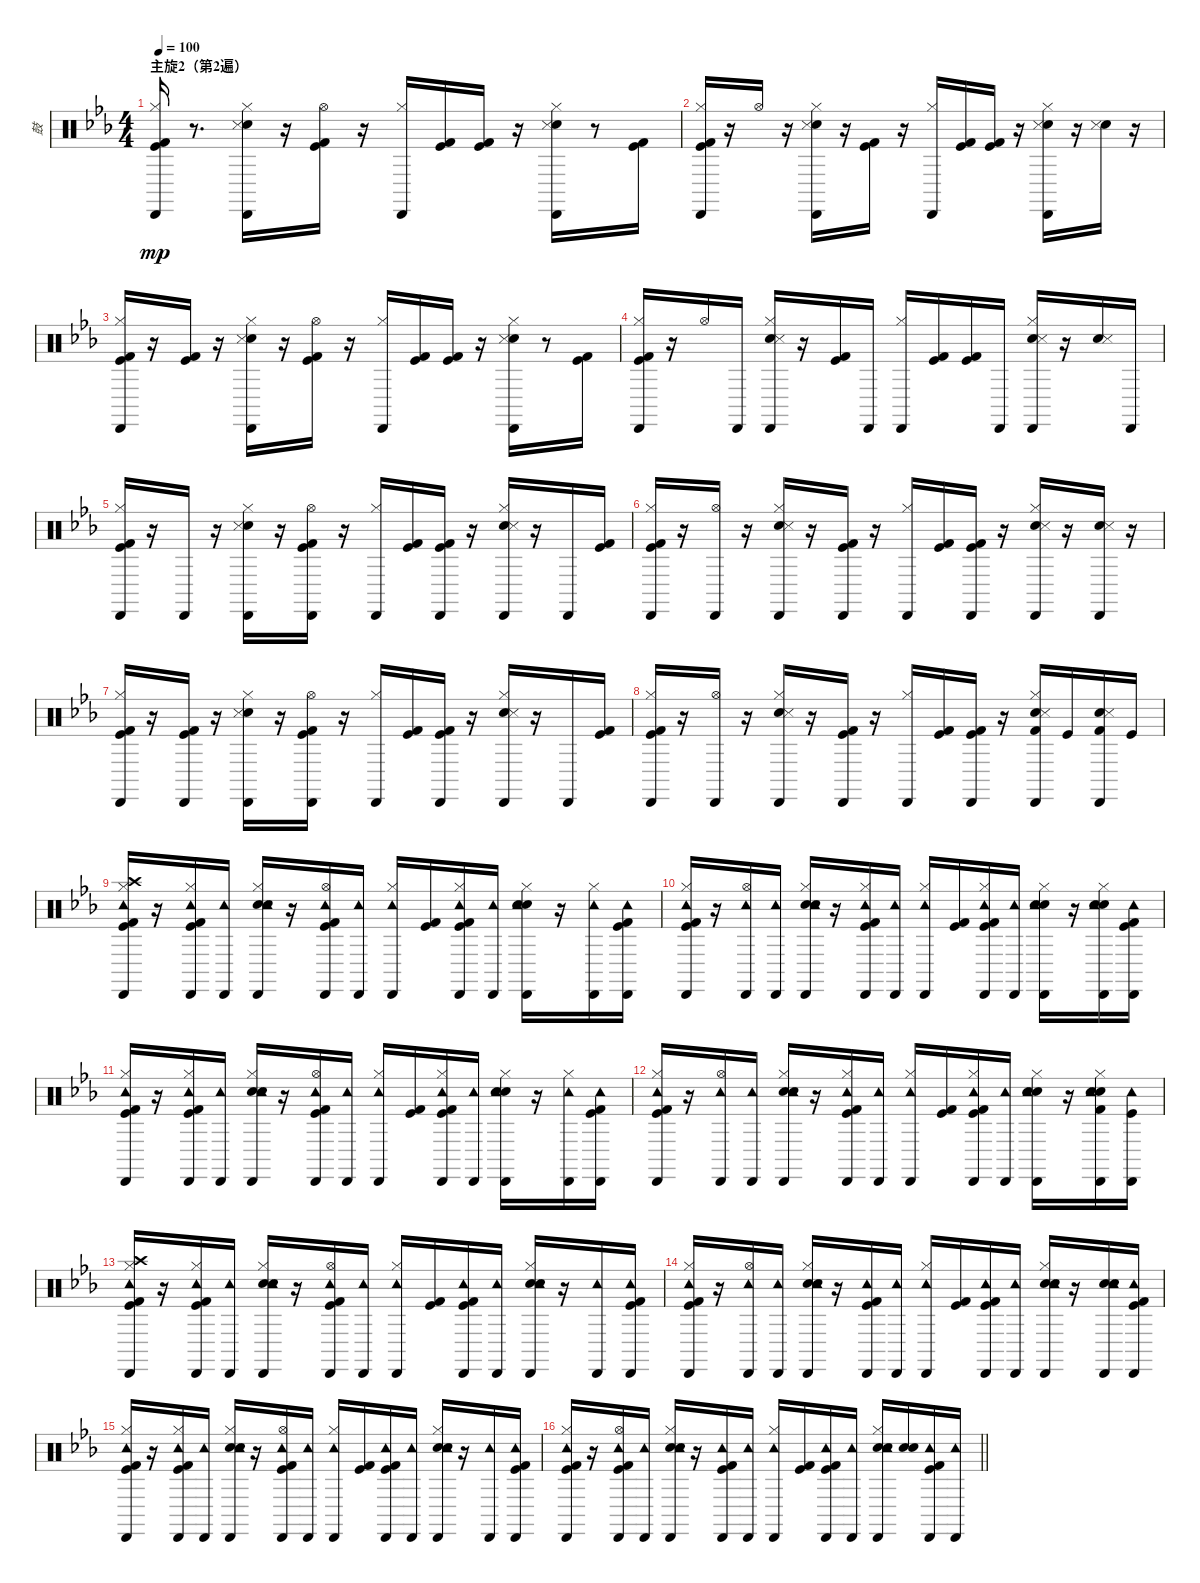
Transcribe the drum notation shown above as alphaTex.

\track ("鼓" "鼓") {instrument percussion}
\staff {score}
\articulation defaults
\ts (4 4)
\section ("" "主旋2（第2遍）")
\tempo 100
\clef neutral
\ks eb
("Kick (hit)" "Kick (hit) 2" "Hi-Hat (closed)" "Cabasa (hit)").16{dy mp} r.8{d} ("Electric Snare (hit)" "Snare (side stick) 3" "Hi-Hat (closed)" "Cabasa (hit)").16 r.16 ("Kick (hit)" "Kick (hit) 2" "Hi-Hat (open)").16 r.16 ("Hi-Hat (closed)" "Cabasa (hit)").16 ("Kick (hit)" "Kick (hit) 2").16 ("Kick (hit)" "Kick (hit) 2").16 r.16 ("Electric Snare (hit)" "Snare (side stick) 3" "Hi-Hat (closed)" "Cabasa (hit)").16 r.8 ("Kick (hit)" "Kick (hit) 2").16 |
("Kick (hit)" "Kick (hit) 2" "Hi-Hat (closed)" "Cabasa (hit)").16 r.16 "Hi-Hat (open)".16 r.16 ("Electric Snare (hit)" "Snare (side stick) 3" "Hi-Hat (closed)" "Cabasa (hit)").16 r.16 ("Kick (hit)" "Kick (hit) 2").16 r.16 ("Hi-Hat (closed)" "Cabasa (hit)").16 ("Kick (hit)" "Kick (hit) 2").16 ("Kick (hit)" "Kick (hit) 2").16 r.16 ("Electric Snare (hit)" "Snare (side stick) 3" "Hi-Hat (closed)" "Cabasa (hit)").16 r.16 ("Electric Snare (hit)" "Snare (side stick) 3").16 r.16 |
("Kick (hit)" "Kick (hit) 2" "Hi-Hat (closed)" "Cabasa (hit)").16 r.16 ("Kick (hit)" "Kick (hit) 2").16 r.16 ("Electric Snare (hit)" "Snare (side stick) 3" "Hi-Hat (closed)" "Cabasa (hit)").16 r.16 ("Kick (hit)" "Kick (hit) 2" "Hi-Hat (open)").16 r.16 ("Hi-Hat (closed)" "Cabasa (hit)").16 ("Kick (hit)" "Kick (hit) 2").16 ("Kick (hit)" "Kick (hit) 2").16 r.16 ("Electric Snare (hit)" "Snare (side stick) 3" "Hi-Hat (closed)" "Cabasa (hit)").16 r.8 ("Kick (hit)" "Kick (hit) 2").16 |
("Kick (hit)" "Kick (hit) 2" "Hi-Hat (closed)" "Cabasa (hit)").16 r.16 "Hi-Hat (open)".16 "Cabasa (hit)".16 ("Electric Snare (hit)" "Snare (side stick) 3" "Hi-Hat (closed)" "Cabasa (hit)").16 r.16 ("Kick (hit)" "Kick (hit) 2").16 "Cabasa (hit)".16 ("Hi-Hat (closed)" "Cabasa (hit)").16 ("Kick (hit)" "Kick (hit) 2").16 ("Kick (hit)" "Kick (hit) 2").16 "Cabasa (hit)".16 ("Electric Snare (hit)" "Snare (side stick) 3" "Hi-Hat (closed)" "Cabasa (hit)").16 r.16 ("Electric Snare (hit)" "Snare (side stick) 3").16 "Cabasa (hit)".16 |
("Kick (hit)" "Kick (hit) 2" "Hi-Hat (closed)" "Cabasa (hit)").16 r.16 "Cabasa (hit)".16 r.16 ("Electric Snare (hit)" "Snare (side stick) 3" "Hi-Hat (closed)" "Cabasa (hit)").16 r.16 ("Kick (hit)" "Kick (hit) 2" "Hi-Hat (open)" "Cabasa (hit)").16 r.16 ("Hi-Hat (closed)" "Cabasa (hit)").16 ("Kick (hit)" "Kick (hit) 2").16 ("Kick (hit)" "Kick (hit) 2" "Cabasa (hit)").16 r.16 ("Electric Snare (hit)" "Snare (side stick) 3" "Hi-Hat (closed)" "Cabasa (hit)").16 r.16 "Cabasa (hit)".16 ("Kick (hit)" "Kick (hit) 2").16 |
("Kick (hit)" "Kick (hit) 2" "Hi-Hat (closed)" "Cabasa (hit)").16 r.16 ("Hi-Hat (open)" "Cabasa (hit)").16 r.16 ("Electric Snare (hit)" "Snare (side stick) 3" "Hi-Hat (closed)" "Cabasa (hit)").16 r.16 ("Kick (hit)" "Kick (hit) 2" "Cabasa (hit)").16 r.16 ("Hi-Hat (closed)" "Cabasa (hit)").16 ("Kick (hit)" "Kick (hit) 2").16 ("Kick (hit)" "Kick (hit) 2" "Cabasa (hit)").16 r.16 ("Electric Snare (hit)" "Snare (side stick) 3" "Hi-Hat (closed)" "Cabasa (hit)").16 r.16 ("Electric Snare (hit)" "Snare (side stick) 3" "Cabasa (hit)").16 r.16 |
("Kick (hit)" "Kick (hit) 2" "Hi-Hat (closed)" "Cabasa (hit)").16 r.16 ("Cabasa (hit)" "Kick (hit)" "Kick (hit) 2").16 r.16 ("Electric Snare (hit)" "Snare (side stick) 3" "Hi-Hat (closed)" "Cabasa (hit)").16 r.16 ("Kick (hit)" "Kick (hit) 2" "Hi-Hat (open)" "Cabasa (hit)").16 r.16 ("Hi-Hat (closed)" "Cabasa (hit)").16 ("Kick (hit)" "Kick (hit) 2").16 ("Kick (hit)" "Kick (hit) 2" "Cabasa (hit)").16 r.16 ("Electric Snare (hit)" "Snare (side stick) 3" "Hi-Hat (closed)" "Cabasa (hit)").16 r.16 "Cabasa (hit)".16 ("Kick (hit)" "Kick (hit) 2").16 |
("Kick (hit)" "Kick (hit) 2" "Hi-Hat (closed)" "Cabasa (hit)").16 r.16 ("Hi-Hat (open)" "Cabasa (hit)").16 r.16 ("Electric Snare (hit)" "Snare (side stick) 3" "Hi-Hat (closed)" "Cabasa (hit)").16 r.16 ("Kick (hit)" "Kick (hit) 2" "Cabasa (hit)").16 r.16 ("Hi-Hat (closed)" "Cabasa (hit)").16 ("Kick (hit)" "Kick (hit) 2").16 ("Kick (hit)" "Kick (hit) 2" "Cabasa (hit)").16 r.16 ("Electric Snare (hit)" "Snare (side stick) 3" "Hi-Hat (closed)" "Cabasa (hit)" "Kick (hit) 2").16 "Kick (hit)".16 ("Electric Snare (hit)" "Snare (side stick) 3" "Cabasa (hit)" "Kick (hit) 2").16 "Kick (hit)".16 |
("Kick (hit)" "Kick (hit) 2" "Hi-Hat (closed)" "Cabasa (hit)" "Tambourine (hit)" "Crash high (hit)").16 r.16 ("Cabasa (hit)" "Kick (hit)" "Kick (hit) 2" "Tambourine (hit)" "Hi-Hat (closed)").16 ("Cabasa (hit)" "Tambourine (hit)").16 ("Electric Snare (hit)" "Hi-Hat (closed)" "Cabasa (hit)" "Tambourine (hit)" "Hand Clap (hit)").16 r.16 ("Kick (hit)" "Kick (hit) 2" "Hi-Hat (open)" "Cabasa (hit)" "Tambourine (hit)").16 ("Cabasa (hit)" "Tambourine (hit)").16 ("Hi-Hat (closed)" "Cabasa (hit)" "Tambourine (hit)").16 ("Kick (hit)" "Kick (hit) 2").16 ("Kick (hit)" "Kick (hit) 2" "Cabasa (hit)" "Tambourine (hit)" "Hi-Hat (closed)").16 ("Cabasa (hit)" "Tambourine (hit)").16 ("Electric Snare (hit)" "Hi-Hat (closed)" "Cabasa (hit)" "Tambourine (hit)" "Hand Clap (hit)").16 r.16 ("Cabasa (hit)" "Tambourine (hit)" "Hi-Hat (closed)").16 ("Kick (hit)" "Kick (hit) 2" "Cabasa (hit)" "Tambourine (hit)").16 |
("Kick (hit)" "Kick (hit) 2" "Hi-Hat (closed)" "Cabasa (hit)" "Tambourine (hit)").16 r.16 ("Hi-Hat (open)" "Cabasa (hit)" "Tambourine (hit)").16 ("Cabasa (hit)" "Tambourine (hit)").16 ("Electric Snare (hit)" "Hi-Hat (closed)" "Cabasa (hit)" "Tambourine (hit)" "Hand Clap (hit)").16 r.16 ("Kick (hit)" "Kick (hit) 2" "Cabasa (hit)" "Tambourine (hit)" "Hi-Hat (closed)").16 ("Cabasa (hit)" "Tambourine (hit)").16 ("Hi-Hat (closed)" "Cabasa (hit)" "Tambourine (hit)").16 ("Kick (hit)" "Kick (hit) 2").16 ("Kick (hit)" "Kick (hit) 2" "Cabasa (hit)" "Tambourine (hit)" "Hi-Hat (closed)").16 ("Cabasa (hit)" "Tambourine (hit)").16 ("Electric Snare (hit)" "Hi-Hat (closed)" "Cabasa (hit)" "Tambourine (hit)" "Hand Clap (hit)").16 r.16 ("Electric Snare (hit)" "Cabasa (hit)" "Tambourine (hit)" "Hand Clap (hit)" "Hi-Hat (closed)").16 ("Kick (hit)" "Cabasa (hit)" "Tambourine (hit)" "Kick (hit) 2").16 |
("Kick (hit)" "Kick (hit) 2" "Hi-Hat (closed)" "Cabasa (hit)" "Tambourine (hit)").16 r.16 ("Cabasa (hit)" "Kick (hit)" "Kick (hit) 2" "Tambourine (hit)" "Hi-Hat (closed)").16 ("Cabasa (hit)" "Tambourine (hit)").16 ("Electric Snare (hit)" "Hi-Hat (closed)" "Cabasa (hit)" "Tambourine (hit)" "Hand Clap (hit)").16 r.16 ("Kick (hit)" "Kick (hit) 2" "Hi-Hat (open)" "Cabasa (hit)" "Tambourine (hit)").16 ("Cabasa (hit)" "Tambourine (hit)").16 ("Hi-Hat (closed)" "Cabasa (hit)" "Tambourine (hit)").16 ("Kick (hit)" "Kick (hit) 2").16 ("Kick (hit)" "Kick (hit) 2" "Cabasa (hit)" "Tambourine (hit)" "Hi-Hat (closed)").16 ("Cabasa (hit)" "Tambourine (hit)").16 ("Electric Snare (hit)" "Hi-Hat (closed)" "Cabasa (hit)" "Tambourine (hit)" "Hand Clap (hit)").16 r.16 ("Cabasa (hit)" "Tambourine (hit)" "Hi-Hat (closed)").16 ("Kick (hit)" "Kick (hit) 2" "Cabasa (hit)" "Tambourine (hit)").16 |
("Kick (hit)" "Kick (hit) 2" "Hi-Hat (closed)" "Cabasa (hit)" "Tambourine (hit)").16 r.16 ("Hi-Hat (open)" "Cabasa (hit)" "Tambourine (hit)").16 ("Cabasa (hit)" "Tambourine (hit)").16 ("Electric Snare (hit)" "Hi-Hat (closed)" "Cabasa (hit)" "Tambourine (hit)" "Hand Clap (hit)").16 r.16 ("Kick (hit)" "Kick (hit) 2" "Cabasa (hit)" "Tambourine (hit)" "Hi-Hat (closed)").16 ("Cabasa (hit)" "Tambourine (hit)").16 ("Hi-Hat (closed)" "Cabasa (hit)" "Tambourine (hit)").16 ("Kick (hit)" "Kick (hit) 2").16 ("Kick (hit)" "Kick (hit) 2" "Cabasa (hit)" "Tambourine (hit)" "Hi-Hat (closed)").16 ("Cabasa (hit)" "Tambourine (hit)").16 ("Electric Snare (hit)" "Hi-Hat (closed)" "Cabasa (hit)" "Tambourine (hit)" "Hand Clap (hit)").16 r.16 ("Electric Snare (hit)" "Cabasa (hit)" "Tambourine (hit)" "Hand Clap (hit)" "Hi-Hat (closed)" "Kick (hit) 2").16 ("Cabasa (hit)" "Tambourine (hit)" "Kick (hit)").16 |
("Kick (hit)" "Kick (hit) 2" "Hi-Hat (closed)" "Cabasa (hit)" "Tambourine (hit)" "Crash high (hit)").16 r.16 ("Cabasa (hit)" "Kick (hit)" "Kick (hit) 2" "Tambourine (hit)" "Hi-Hat (closed)").16 ("Cabasa (hit)" "Tambourine (hit)").16 ("Electric Snare (hit)" "Hi-Hat (closed)" "Cabasa (hit)" "Tambourine (hit)" "Hand Clap (hit)").16 r.16 ("Kick (hit)" "Kick (hit) 2" "Hi-Hat (open)" "Cabasa (hit)" "Tambourine (hit)").16 ("Cabasa (hit)" "Tambourine (hit)").16 ("Hi-Hat (closed)" "Cabasa (hit)" "Tambourine (hit)").16 ("Kick (hit)" "Kick (hit) 2").16 ("Kick (hit)" "Kick (hit) 2" "Cabasa (hit)" "Tambourine (hit)").16 ("Cabasa (hit)" "Tambourine (hit)").16 ("Electric Snare (hit)" "Hi-Hat (closed)" "Cabasa (hit)" "Tambourine (hit)" "Hand Clap (hit)").16 r.16 ("Cabasa (hit)" "Tambourine (hit)").16 ("Kick (hit)" "Kick (hit) 2" "Cabasa (hit)" "Tambourine (hit)").16 |
("Kick (hit)" "Kick (hit) 2" "Hi-Hat (closed)" "Cabasa (hit)" "Tambourine (hit)").16 r.16 ("Hi-Hat (open)" "Cabasa (hit)" "Tambourine (hit)").16 ("Cabasa (hit)" "Tambourine (hit)").16 ("Electric Snare (hit)" "Hi-Hat (closed)" "Cabasa (hit)" "Tambourine (hit)" "Hand Clap (hit)").16 r.16 ("Kick (hit)" "Kick (hit) 2" "Cabasa (hit)" "Tambourine (hit)").16 ("Cabasa (hit)" "Tambourine (hit)").16 ("Hi-Hat (closed)" "Cabasa (hit)" "Tambourine (hit)").16 ("Kick (hit)" "Kick (hit) 2").16 ("Kick (hit)" "Kick (hit) 2" "Cabasa (hit)" "Tambourine (hit)").16 ("Cabasa (hit)" "Tambourine (hit)").16 ("Electric Snare (hit)" "Hi-Hat (closed)" "Cabasa (hit)" "Tambourine (hit)" "Hand Clap (hit)").16 r.16 ("Electric Snare (hit)" "Cabasa (hit)" "Tambourine (hit)" "Hand Clap (hit)").16 ("Kick (hit)" "Cabasa (hit)" "Tambourine (hit)" "Kick (hit) 2").16 |
("Kick (hit)" "Kick (hit) 2" "Hi-Hat (closed)" "Cabasa (hit)" "Tambourine (hit)").16 r.16 ("Cabasa (hit)" "Kick (hit)" "Kick (hit) 2" "Tambourine (hit)" "Hi-Hat (closed)").16 ("Cabasa (hit)" "Tambourine (hit)").16 ("Electric Snare (hit)" "Hi-Hat (closed)" "Cabasa (hit)" "Tambourine (hit)" "Hand Clap (hit)").16 r.16 ("Kick (hit)" "Kick (hit) 2" "Hi-Hat (open)" "Cabasa (hit)" "Tambourine (hit)").16 ("Cabasa (hit)" "Tambourine (hit)").16 ("Hi-Hat (closed)" "Cabasa (hit)" "Tambourine (hit)").16 ("Kick (hit)" "Kick (hit) 2").16 ("Kick (hit)" "Kick (hit) 2" "Cabasa (hit)" "Tambourine (hit)").16 ("Cabasa (hit)" "Tambourine (hit)").16 ("Electric Snare (hit)" "Hi-Hat (closed)" "Cabasa (hit)" "Tambourine (hit)" "Hand Clap (hit)").16 r.16 ("Cabasa (hit)" "Tambourine (hit)").16 ("Kick (hit)" "Kick (hit) 2" "Cabasa (hit)" "Tambourine (hit)").16 |
\barLineRight lightlight
("Kick (hit)" "Kick (hit) 2" "Hi-Hat (closed)" "Cabasa (hit)" "Tambourine (hit)").16 r.16 ("Hi-Hat (open)" "Cabasa (hit)" "Tambourine (hit)" "Kick (hit)" "Kick (hit) 2").16 ("Cabasa (hit)" "Tambourine (hit)").16 ("Electric Snare (hit)" "Hi-Hat (closed)" "Cabasa (hit)" "Tambourine (hit)" "Hand Clap (hit)").16 r.16 ("Kick (hit)" "Kick (hit) 2" "Cabasa (hit)" "Tambourine (hit)").16 ("Cabasa (hit)" "Tambourine (hit)").16 ("Hi-Hat (closed)" "Cabasa (hit)" "Tambourine (hit)").16 ("Kick (hit)" "Kick (hit) 2").16 ("Kick (hit)" "Kick (hit) 2" "Cabasa (hit)" "Tambourine (hit)").16 ("Cabasa (hit)" "Tambourine (hit)").16 ("Electric Snare (hit)" "Hi-Hat (closed)" "Cabasa (hit)" "Tambourine (hit)" "Hand Clap (hit)").16 ("Electric Snare (hit)" "Hand Clap (hit)").16 ("Cabasa (hit)" "Tambourine (hit)" "Kick (hit)" "Kick (hit) 2").16 ("Cabasa (hit)" "Tambourine (hit)").16
